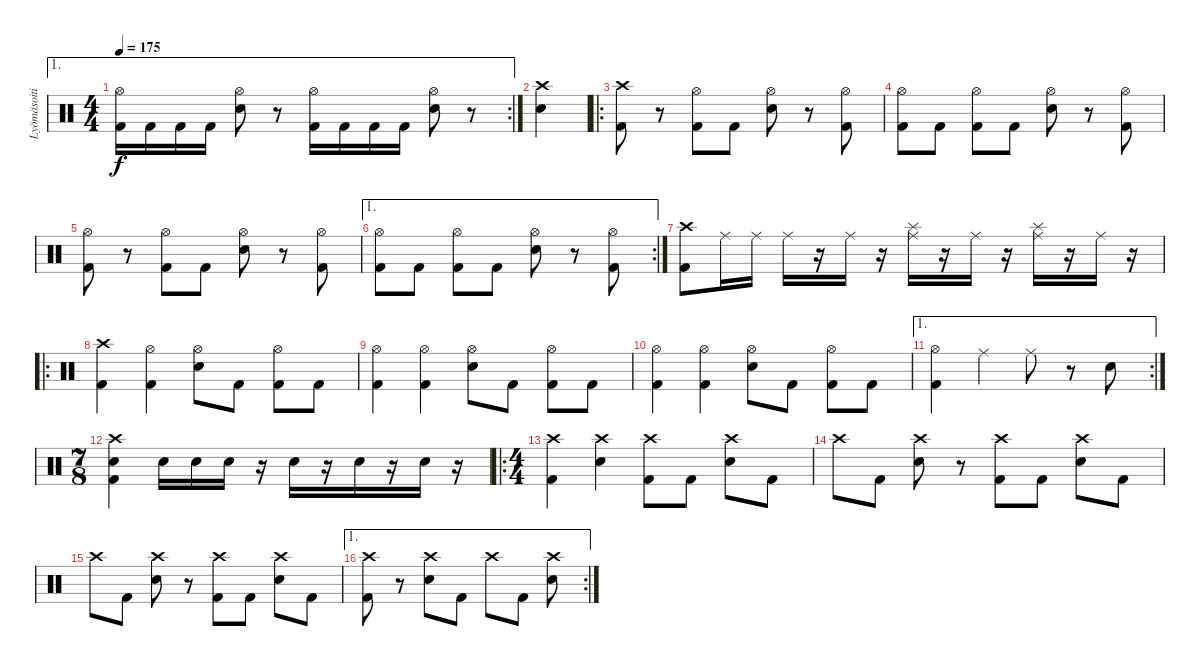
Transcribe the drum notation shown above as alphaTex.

\track ("Lyömäsoitin" "Lyömäsoiti") {instrument percussion}
\staff {score}
\articulation defaults
\ae 1
\rc 2
\ts (4 4)
\tempo 175
\clef neutral
\ks c
("Kick (hit) 2" "Hi-Hat (open)").16{dy f} "Kick (hit) 2".16 "Kick (hit) 2".16 "Kick (hit) 2".16 ("Electric Snare (hit)" "Hi-Hat (open)").8 r.8 ("Kick (hit) 2" "Hi-Hat (open)").16 "Kick (hit) 2".16 "Kick (hit) 2".16 "Kick (hit) 2".16 ("Electric Snare (hit)" "Hi-Hat (open)").8 r.8 |
("Electric Snare (hit)" "Crash high (hit)").4 |
\ro
("Kick (hit) 2" "Crash high (hit)").8 r.8 ("Kick (hit) 2" "Hi-Hat (open)").8 "Kick (hit) 2".8 ("Electric Snare (hit)" "Hi-Hat (open)").8 r.8 ("Kick (hit) 2" "Hi-Hat (open)").8 |
("Kick (hit) 2" "Hi-Hat (open)").8 "Kick (hit) 2".8 ("Kick (hit) 2" "Hi-Hat (open)").8 "Kick (hit) 2".8 ("Electric Snare (hit)" "Hi-Hat (open)").8 r.8 ("Kick (hit) 2" "Hi-Hat (open)").8 |
("Kick (hit) 2" "Hi-Hat (open)").8 r.8 ("Kick (hit) 2" "Hi-Hat (open)").8 "Kick (hit) 2".8 ("Electric Snare (hit)" "Hi-Hat (open)").8 r.8 ("Kick (hit) 2" "Hi-Hat (open)").8 |
\ae 1
\rc 2
("Kick (hit) 2" "Hi-Hat (open)").8 "Kick (hit) 2".8 ("Kick (hit) 2" "Hi-Hat (open)").8 "Kick (hit) 2".8 ("Electric Snare (hit)" "Hi-Hat (open)").8 r.8 ("Kick (hit) 2" "Hi-Hat (open)").8 |
("Kick (hit) 2" "Crash high (hit)").8 "Ride (middle)".16 "Ride (middle)".16 "Ride (middle)".16 r.16 "Ride (middle)".16 r.16 ("Ride (middle)" "Splash (hit)").16 r.16 "Ride (middle)".16 r.16 ("Ride (middle)" "Splash (hit)").16 r.16 "Ride (middle)".16 r.16 |
\ro
("Kick (hit) 2" "Crash high (hit)").4 ("Kick (hit) 2" "Hi-Hat (open)").4 ("Electric Snare (hit)" "Hi-Hat (open)").8 "Kick (hit) 2".8 ("Kick (hit) 2" "Hi-Hat (open)").8 "Kick (hit) 2".8 |
("Kick (hit) 2" "Hi-Hat (open)").4 ("Kick (hit) 2" "Hi-Hat (open)").4 ("Electric Snare (hit)" "Hi-Hat (open)").8 "Kick (hit) 2".8 ("Kick (hit) 2" "Hi-Hat (open)").8 "Kick (hit) 2".8 |
("Kick (hit) 2" "Hi-Hat (open)").4 ("Kick (hit) 2" "Hi-Hat (open)").4 ("Electric Snare (hit)" "Hi-Hat (open)").8 "Kick (hit) 2".8 ("Kick (hit) 2" "Hi-Hat (open)").8 "Kick (hit) 2".8 |
\ae 1
\rc 2
("Kick (hit) 2" "Hi-Hat (open)").4 "Ride (middle)".4 "Ride (middle)".8 r.8 "Electric Snare (hit)".8 |
\ts (7 8)
("Kick (hit) 2" "Electric Snare (hit)" "Crash high (hit)").4 "Electric Snare (hit)".16 "Electric Snare (hit)".16 "Electric Snare (hit)".16 r.16 "Electric Snare (hit)".16 r.16 "Electric Snare (hit)".16 r.16 "Electric Snare (hit)".16 r.16 |
\ro
\ts (4 4)
("Kick (hit) 2" "Crash high (hit)").4 ("Electric Snare (hit)" "Crash high (hit)").4 ("Kick (hit) 2" "Crash high (hit)").8 "Kick (hit) 2".8 ("Electric Snare (hit)" "Crash high (hit)").8 "Kick (hit) 2".8 |
"Crash high (hit)".8 "Kick (hit) 2".8 ("Electric Snare (hit)" "Crash high (hit)").8 r.8 ("Kick (hit) 2" "Crash high (hit)").8 "Kick (hit) 2".8 ("Electric Snare (hit)" "Crash high (hit)").8 "Kick (hit) 2".8 |
"Crash high (hit)".8 "Kick (hit) 2".8 ("Electric Snare (hit)" "Crash high (hit)").8 r.8 ("Kick (hit) 2" "Crash high (hit)").8 "Kick (hit) 2".8 ("Electric Snare (hit)" "Crash high (hit)").8 "Kick (hit) 2".8 |
\ae 1
\rc 2
("Kick (hit) 2" "Crash high (hit)").8 r.8 ("Electric Snare (hit)" "Crash high (hit)").8 "Kick (hit) 2".8 "Crash high (hit)".8 "Kick (hit) 2".8 ("Electric Snare (hit)" "Crash high (hit)").8
